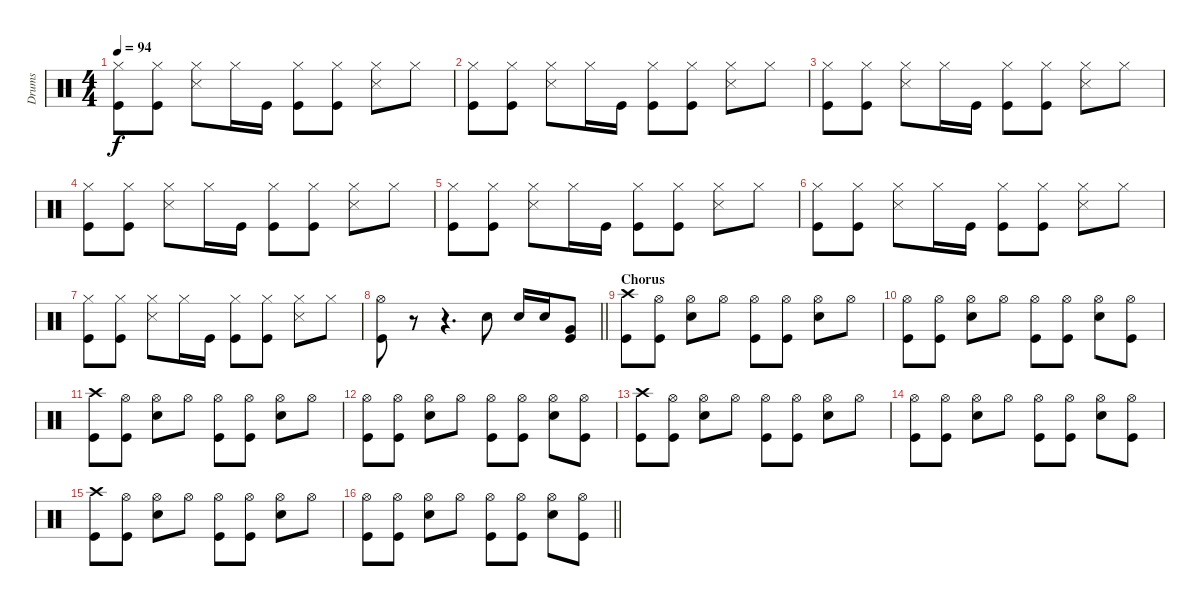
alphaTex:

\track ("Drums" "Drums") {instrument percussion}
\staff {score}
\articulation defaults
\ts (4 4)
\tempo 94
\clef neutral
\ks c
("Hi-Hat (closed)" "Kick (hit)").8{dy f} ("Hi-Hat (closed)" "Kick (hit)").8 ("Hi-Hat (closed)" "Snare (side stick) 3").8 "Hi-Hat (closed)".16 "Kick (hit)".16 ("Hi-Hat (closed)" "Kick (hit)").8 ("Hi-Hat (closed)" "Kick (hit)").8 ("Hi-Hat (closed)" "Snare (side stick) 3").8 "Hi-Hat (closed)".8 |
("Hi-Hat (closed)" "Kick (hit)").8 ("Hi-Hat (closed)" "Kick (hit)").8 ("Hi-Hat (closed)" "Snare (side stick) 3").8 "Hi-Hat (closed)".16 "Kick (hit)".16 ("Hi-Hat (closed)" "Kick (hit)").8 ("Hi-Hat (closed)" "Kick (hit)").8 ("Hi-Hat (closed)" "Snare (side stick) 3").8 "Hi-Hat (closed)".8 |
("Hi-Hat (closed)" "Kick (hit)").8 ("Hi-Hat (closed)" "Kick (hit)").8 ("Hi-Hat (closed)" "Snare (side stick) 3").8 "Hi-Hat (closed)".16 "Kick (hit)".16 ("Hi-Hat (closed)" "Kick (hit)").8 ("Hi-Hat (closed)" "Kick (hit)").8 ("Hi-Hat (closed)" "Snare (side stick) 3").8 "Hi-Hat (closed)".8 |
("Hi-Hat (closed)" "Kick (hit)").8 ("Hi-Hat (closed)" "Kick (hit)").8 ("Hi-Hat (closed)" "Snare (side stick) 3").8 "Hi-Hat (closed)".16 "Kick (hit)".16 ("Hi-Hat (closed)" "Kick (hit)").8 ("Hi-Hat (closed)" "Kick (hit)").8 ("Hi-Hat (closed)" "Snare (side stick) 3").8 "Hi-Hat (closed)".8 |
("Hi-Hat (closed)" "Kick (hit)").8 ("Hi-Hat (closed)" "Kick (hit)").8 ("Hi-Hat (closed)" "Snare (side stick) 3").8 "Hi-Hat (closed)".16 "Kick (hit)".16 ("Hi-Hat (closed)" "Kick (hit)").8 ("Hi-Hat (closed)" "Kick (hit)").8 ("Hi-Hat (closed)" "Snare (side stick) 3").8 "Hi-Hat (closed)".8 |
("Hi-Hat (closed)" "Kick (hit)").8 ("Hi-Hat (closed)" "Kick (hit)").8 ("Hi-Hat (closed)" "Snare (side stick) 3").8 "Hi-Hat (closed)".16 "Kick (hit)".16 ("Hi-Hat (closed)" "Kick (hit)").8 ("Hi-Hat (closed)" "Kick (hit)").8 ("Hi-Hat (closed)" "Snare (side stick) 3").8 "Hi-Hat (closed)".8 |
("Hi-Hat (closed)" "Kick (hit)").8 ("Hi-Hat (closed)" "Kick (hit)").8 ("Hi-Hat (closed)" "Snare (side stick) 3").8 "Hi-Hat (closed)".16 "Kick (hit)".16 ("Hi-Hat (closed)" "Kick (hit)").8 ("Hi-Hat (closed)" "Kick (hit)").8 ("Hi-Hat (closed)" "Snare (side stick) 3").8 "Hi-Hat (closed)".8 |
\barLineRight lightlight
("Hi-Hat (open)" "Kick (hit)").8 r.8 r.4{d} "Snare (hit) 2".8 "Snare (hit) 2".16 "Snare (hit) 2".16 ("Very Low Tom (hit)" "Kick (hit)").8 |
\section ("" "Chorus")
("Crash high (hit)" "Kick (hit)").8 ("Hi-Hat (open)" "Kick (hit)").8 ("Hi-Hat (open)" "Snare (hit) 2").8 "Hi-Hat (open)".8 ("Hi-Hat (open)" "Kick (hit)").8 ("Hi-Hat (open)" "Kick (hit)").8 ("Hi-Hat (open)" "Snare (hit) 2").8 "Hi-Hat (open)".8 |
("Hi-Hat (open)" "Kick (hit)").8 ("Hi-Hat (open)" "Kick (hit)").8 ("Hi-Hat (open)" "Snare (hit) 2").8 "Hi-Hat (open)".8 ("Hi-Hat (open)" "Kick (hit)").8 ("Hi-Hat (open)" "Kick (hit)").8 ("Hi-Hat (open)" "Snare (hit) 2").8 ("Hi-Hat (open)" "Kick (hit)").8 |
("Crash high (hit)" "Kick (hit)").8 ("Hi-Hat (open)" "Kick (hit)").8 ("Hi-Hat (open)" "Snare (hit) 2").8 "Hi-Hat (open)".8 ("Hi-Hat (open)" "Kick (hit)").8 ("Hi-Hat (open)" "Kick (hit)").8 ("Hi-Hat (open)" "Snare (hit) 2").8 "Hi-Hat (open)".8 |
("Hi-Hat (open)" "Kick (hit)").8 ("Hi-Hat (open)" "Kick (hit)").8 ("Hi-Hat (open)" "Snare (hit) 2").8 "Hi-Hat (open)".8 ("Hi-Hat (open)" "Kick (hit)").8 ("Hi-Hat (open)" "Kick (hit)").8 ("Hi-Hat (open)" "Snare (hit) 2").8 ("Hi-Hat (open)" "Kick (hit)").8 |
("Crash high (hit)" "Kick (hit)").8 ("Hi-Hat (open)" "Kick (hit)").8 ("Hi-Hat (open)" "Snare (hit) 2").8 "Hi-Hat (open)".8 ("Hi-Hat (open)" "Kick (hit)").8 ("Hi-Hat (open)" "Kick (hit)").8 ("Hi-Hat (open)" "Snare (hit) 2").8 "Hi-Hat (open)".8 |
("Hi-Hat (open)" "Kick (hit)").8 ("Hi-Hat (open)" "Kick (hit)").8 ("Hi-Hat (open)" "Snare (hit) 2").8 "Hi-Hat (open)".8 ("Hi-Hat (open)" "Kick (hit)").8 ("Hi-Hat (open)" "Kick (hit)").8 ("Hi-Hat (open)" "Snare (hit) 2").8 ("Hi-Hat (open)" "Kick (hit)").8 |
("Crash high (hit)" "Kick (hit)").8 ("Hi-Hat (open)" "Kick (hit)").8 ("Hi-Hat (open)" "Snare (hit) 2").8 "Hi-Hat (open)".8 ("Hi-Hat (open)" "Kick (hit)").8 ("Hi-Hat (open)" "Kick (hit)").8 ("Hi-Hat (open)" "Snare (hit) 2").8 "Hi-Hat (open)".8 |
\barLineRight lightlight
("Hi-Hat (open)" "Kick (hit)").8 ("Hi-Hat (open)" "Kick (hit)").8 ("Hi-Hat (open)" "Snare (hit) 2").8 "Hi-Hat (open)".8 ("Hi-Hat (open)" "Kick (hit)").8 ("Hi-Hat (open)" "Kick (hit)").8 ("Hi-Hat (open)" "Snare (hit) 2").8 ("Hi-Hat (open)" "Kick (hit)").8
